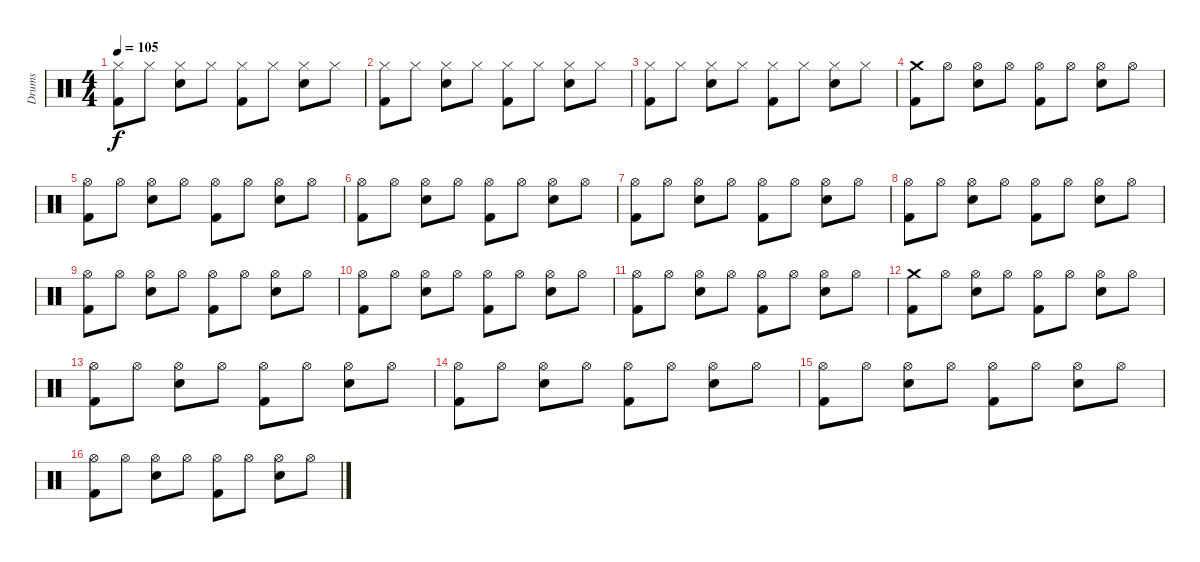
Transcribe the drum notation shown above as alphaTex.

\track ("Drums" "Drums") {instrument percussion}
\staff {score}
\articulation defaults
\ts (4 4)
\tempo 105
\clef neutral
\ks c
("Hi-Hat (closed)" "Kick (hit) 2").8{dy f} "Hi-Hat (closed)".8 ("Hi-Hat (closed)" "Electric Snare (hit)").8 "Hi-Hat (closed)".8 ("Hi-Hat (closed)" "Kick (hit) 2").8 "Hi-Hat (closed)".8 ("Hi-Hat (closed)" "Electric Snare (hit)").8 "Hi-Hat (closed)".8 |
("Hi-Hat (closed)" "Kick (hit) 2").8 "Hi-Hat (closed)".8 ("Hi-Hat (closed)" "Electric Snare (hit)").8 "Hi-Hat (closed)".8 ("Hi-Hat (closed)" "Kick (hit) 2").8 "Hi-Hat (closed)".8 ("Hi-Hat (closed)" "Electric Snare (hit)").8 "Hi-Hat (closed)".8 |
("Hi-Hat (closed)" "Kick (hit) 2").8 "Hi-Hat (closed)".8 ("Hi-Hat (closed)" "Electric Snare (hit)").8 "Hi-Hat (closed)".8 ("Hi-Hat (closed)" "Kick (hit) 2").8 "Hi-Hat (closed)".8 ("Hi-Hat (closed)" "Electric Snare (hit)").8 "Hi-Hat (closed)".8 |
("Crash medium (hit)" "Kick (hit) 2").8 "Hi-Hat (open)".8 ("Hi-Hat (open)" "Electric Snare (hit)").8 "Hi-Hat (open)".8 ("Hi-Hat (open)" "Kick (hit) 2").8 "Hi-Hat (open)".8 ("Hi-Hat (open)" "Electric Snare (hit)").8 "Hi-Hat (open)".8 |
("Hi-Hat (open)" "Kick (hit) 2").8 "Hi-Hat (open)".8 ("Hi-Hat (open)" "Electric Snare (hit)").8 "Hi-Hat (open)".8 ("Hi-Hat (open)" "Kick (hit) 2").8 "Hi-Hat (open)".8 ("Hi-Hat (open)" "Electric Snare (hit)").8 "Hi-Hat (open)".8 |
("Hi-Hat (open)" "Kick (hit) 2").8 "Hi-Hat (open)".8 ("Hi-Hat (open)" "Electric Snare (hit)").8 "Hi-Hat (open)".8 ("Hi-Hat (open)" "Kick (hit) 2").8 "Hi-Hat (open)".8 ("Hi-Hat (open)" "Electric Snare (hit)").8 "Hi-Hat (open)".8 |
("Hi-Hat (open)" "Kick (hit) 2").8 "Hi-Hat (open)".8 ("Hi-Hat (open)" "Electric Snare (hit)").8 "Hi-Hat (open)".8 ("Hi-Hat (open)" "Kick (hit) 2").8 "Hi-Hat (open)".8 ("Hi-Hat (open)" "Electric Snare (hit)").8 "Hi-Hat (open)".8 |
("Hi-Hat (open)" "Kick (hit) 2").8 "Hi-Hat (open)".8 ("Hi-Hat (open)" "Electric Snare (hit)").8 "Hi-Hat (open)".8 ("Hi-Hat (open)" "Kick (hit) 2").8 "Hi-Hat (open)".8 ("Hi-Hat (open)" "Electric Snare (hit)").8 "Hi-Hat (open)".8 |
("Hi-Hat (open)" "Kick (hit) 2").8 "Hi-Hat (open)".8 ("Hi-Hat (open)" "Electric Snare (hit)").8 "Hi-Hat (open)".8 ("Hi-Hat (open)" "Kick (hit) 2").8 "Hi-Hat (open)".8 ("Hi-Hat (open)" "Electric Snare (hit)").8 "Hi-Hat (open)".8 |
("Hi-Hat (open)" "Kick (hit) 2").8 "Hi-Hat (open)".8 ("Hi-Hat (open)" "Electric Snare (hit)").8 "Hi-Hat (open)".8 ("Hi-Hat (open)" "Kick (hit) 2").8 "Hi-Hat (open)".8 ("Hi-Hat (open)" "Electric Snare (hit)").8 "Hi-Hat (open)".8 |
("Hi-Hat (open)" "Kick (hit) 2").8 "Hi-Hat (open)".8 ("Hi-Hat (open)" "Electric Snare (hit)").8 "Hi-Hat (open)".8 ("Hi-Hat (open)" "Kick (hit) 2").8 "Hi-Hat (open)".8 ("Hi-Hat (open)" "Electric Snare (hit)").8 "Hi-Hat (open)".8 |
("Crash medium (hit)" "Kick (hit) 2").8 "Hi-Hat (open)".8 ("Hi-Hat (open)" "Electric Snare (hit)").8 "Hi-Hat (open)".8 ("Hi-Hat (open)" "Kick (hit) 2").8 "Hi-Hat (open)".8 ("Hi-Hat (open)" "Electric Snare (hit)").8 "Hi-Hat (open)".8 |
("Hi-Hat (open)" "Kick (hit) 2").8 "Hi-Hat (open)".8 ("Hi-Hat (open)" "Electric Snare (hit)").8 "Hi-Hat (open)".8 ("Hi-Hat (open)" "Kick (hit) 2").8 "Hi-Hat (open)".8 ("Hi-Hat (open)" "Electric Snare (hit)").8 "Hi-Hat (open)".8 |
("Hi-Hat (open)" "Kick (hit) 2").8 "Hi-Hat (open)".8 ("Hi-Hat (open)" "Electric Snare (hit)").8 "Hi-Hat (open)".8 ("Hi-Hat (open)" "Kick (hit) 2").8 "Hi-Hat (open)".8 ("Hi-Hat (open)" "Electric Snare (hit)").8 "Hi-Hat (open)".8 |
("Hi-Hat (open)" "Kick (hit) 2").8 "Hi-Hat (open)".8 ("Hi-Hat (open)" "Electric Snare (hit)").8 "Hi-Hat (open)".8 ("Hi-Hat (open)" "Kick (hit) 2").8 "Hi-Hat (open)".8 ("Hi-Hat (open)" "Electric Snare (hit)").8 "Hi-Hat (open)".8 |
("Hi-Hat (open)" "Kick (hit) 2").8 "Hi-Hat (open)".8 ("Hi-Hat (open)" "Electric Snare (hit)").8 "Hi-Hat (open)".8 ("Hi-Hat (open)" "Kick (hit) 2").8 "Hi-Hat (open)".8 ("Hi-Hat (open)" "Electric Snare (hit)").8 "Hi-Hat (open)".8
